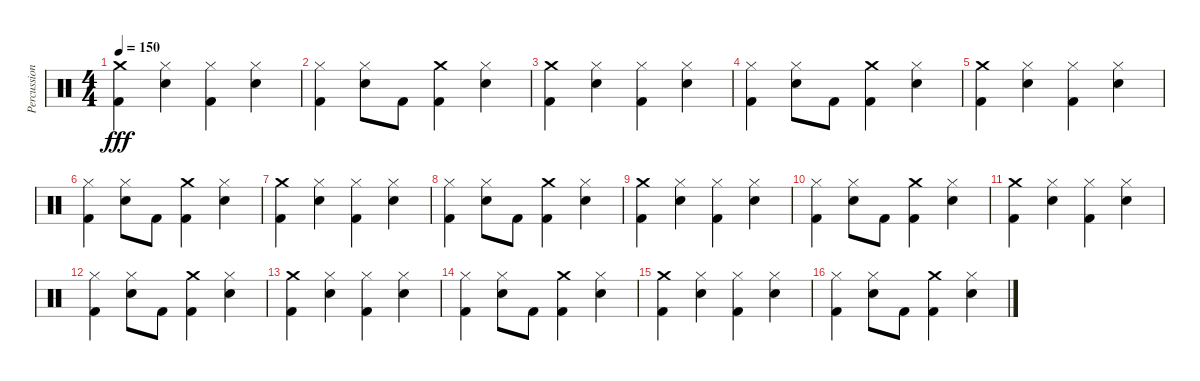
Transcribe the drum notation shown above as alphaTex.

\track ("Percussion" "Percussion") {instrument percussion}
\staff {score}
\articulation defaults
\ts (4 4)
\tempo 150
\clef neutral
\ks c
("Kick (hit) 2" "Crash medium (hit)").4{dy fff} ("Hi-Hat (closed)" "Snare (hit) 2").4 ("Hi-Hat (closed)" "Kick (hit) 2").4 ("Snare (hit) 2" "Hi-Hat (closed)").4 |
("Hi-Hat (closed)" "Kick (hit) 2").4 ("Snare (hit) 2" "Hi-Hat (closed)").8 "Kick (hit) 2".8 ("Kick (hit) 2" "Crash medium (hit)").4 ("Hi-Hat (closed)" "Snare (hit) 2").4 |
("Kick (hit) 2" "Crash medium (hit)").4 ("Hi-Hat (closed)" "Snare (hit) 2").4 ("Hi-Hat (closed)" "Kick (hit) 2").4 ("Snare (hit) 2" "Hi-Hat (closed)").4 |
("Hi-Hat (closed)" "Kick (hit) 2").4 ("Snare (hit) 2" "Hi-Hat (closed)").8 "Kick (hit) 2".8 ("Kick (hit) 2" "Crash medium (hit)").4 ("Hi-Hat (closed)" "Snare (hit) 2").4 |
("Kick (hit) 2" "Crash medium (hit)").4 ("Hi-Hat (closed)" "Snare (hit) 2").4 ("Hi-Hat (closed)" "Kick (hit) 2").4 ("Snare (hit) 2" "Hi-Hat (closed)").4 |
("Hi-Hat (closed)" "Kick (hit) 2").4 ("Snare (hit) 2" "Hi-Hat (closed)").8 "Kick (hit) 2".8 ("Kick (hit) 2" "Crash medium (hit)").4 ("Hi-Hat (closed)" "Snare (hit) 2").4 |
("Kick (hit) 2" "Crash medium (hit)").4 ("Hi-Hat (closed)" "Snare (hit) 2").4 ("Hi-Hat (closed)" "Kick (hit) 2").4 ("Snare (hit) 2" "Hi-Hat (closed)").4 |
("Hi-Hat (closed)" "Kick (hit) 2").4 ("Snare (hit) 2" "Hi-Hat (closed)").8 "Kick (hit) 2".8 ("Kick (hit) 2" "Crash medium (hit)").4 ("Hi-Hat (closed)" "Snare (hit) 2").4 |
("Kick (hit) 2" "Crash medium (hit)").4 ("Hi-Hat (closed)" "Snare (hit) 2").4 ("Hi-Hat (closed)" "Kick (hit) 2").4 ("Snare (hit) 2" "Hi-Hat (closed)").4 |
("Hi-Hat (closed)" "Kick (hit) 2").4 ("Snare (hit) 2" "Hi-Hat (closed)").8 "Kick (hit) 2".8 ("Kick (hit) 2" "Crash medium (hit)").4 ("Hi-Hat (closed)" "Snare (hit) 2").4 |
("Kick (hit) 2" "Crash medium (hit)").4 ("Hi-Hat (closed)" "Snare (hit) 2").4 ("Hi-Hat (closed)" "Kick (hit) 2").4 ("Snare (hit) 2" "Hi-Hat (closed)").4 |
("Hi-Hat (closed)" "Kick (hit) 2").4 ("Snare (hit) 2" "Hi-Hat (closed)").8 "Kick (hit) 2".8 ("Kick (hit) 2" "Crash medium (hit)").4 ("Hi-Hat (closed)" "Snare (hit) 2").4 |
("Kick (hit) 2" "Crash medium (hit)").4 ("Hi-Hat (closed)" "Snare (hit) 2").4 ("Hi-Hat (closed)" "Kick (hit) 2").4 ("Snare (hit) 2" "Hi-Hat (closed)").4 |
("Hi-Hat (closed)" "Kick (hit) 2").4 ("Snare (hit) 2" "Hi-Hat (closed)").8 "Kick (hit) 2".8 ("Kick (hit) 2" "Crash medium (hit)").4 ("Hi-Hat (closed)" "Snare (hit) 2").4 |
("Kick (hit) 2" "Crash medium (hit)").4 ("Hi-Hat (closed)" "Snare (hit) 2").4 ("Hi-Hat (closed)" "Kick (hit) 2").4 ("Snare (hit) 2" "Hi-Hat (closed)").4 |
("Hi-Hat (closed)" "Kick (hit) 2").4 ("Snare (hit) 2" "Hi-Hat (closed)").8 "Kick (hit) 2".8 ("Kick (hit) 2" "Crash medium (hit)").4 ("Hi-Hat (closed)" "Snare (hit) 2").4
